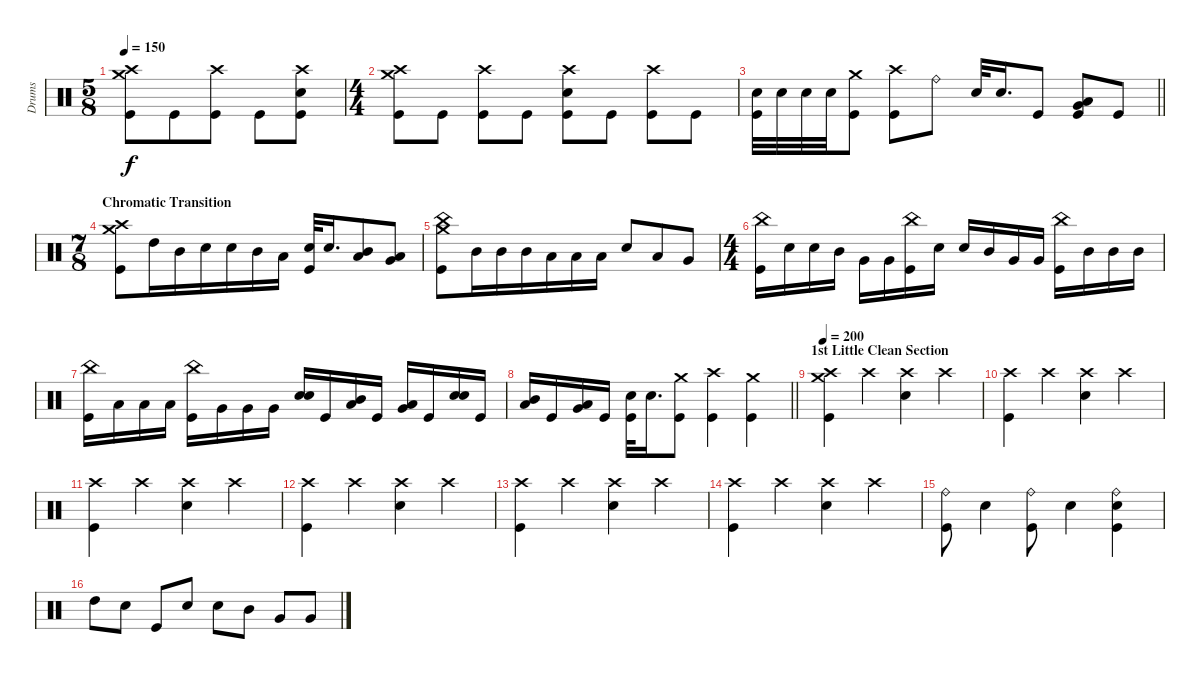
\track ("Drums" "Drums") {instrument percussion}
\staff {score}
\articulation defaults
\ts (5 8)
\tempo 150
\clef neutral
\ks c
("Crash medium (hit)" "Crash high (hit)" "Kick (hit)").8{dy f} "Kick (hit)".8 ("Crash high (hit)" "Kick (hit)").8 "Kick (hit)".8 ("Crash high (hit)" "Electric Snare (hit)" "Kick (hit)").8 |
\ts (4 4)
("Crash medium (hit)" "Crash high (hit)" "Kick (hit)").8 "Kick (hit)".8 ("Crash high (hit)" "Kick (hit)").8 "Kick (hit)".8 ("Crash high (hit)" "Electric Snare (hit)" "Kick (hit)").8 "Kick (hit)".8 ("Crash high (hit)" "Kick (hit)").8 "Kick (hit)".8 |
\barLineRight lightlight
("Electric Snare (hit)" "Kick (hit)").32 "Electric Snare (hit)".32 "Electric Snare (hit)".32 "Electric Snare (hit)".32 ("Crash medium (hit)" "Kick (hit)").8 ("Crash high (hit)" "Kick (hit)").8 "Ride (bell)".8 "Electric Snare (hit)".32 "Electric Snare (hit)".16{d} "Kick (hit)".8 ("Low Tom (hit)" "Very Low Tom (hit)" "Kick (hit)").8 "Kick (hit)".8 |
\ts (7 8)
\section ("" "Chromatic Transition")
("Crash medium (hit)" "Crash high (hit)" "Kick (hit)").8 "High Tom (hit)".16 "Mid Tom (hit)".16 "Electric Snare (hit)".16 "Electric Snare (hit)".16 "Mid Tom (hit)".16 "Low Tom (hit)".16 ("Electric Snare (hit)" "Kick (hit)").32 "Electric Snare (hit)".16{d} ("Mid Tom (hit)" "Low Tom (hit)").8 ("Low Tom (hit)" "Very Low Tom (hit)").8 |
("Crash medium (hit)" "China (hit)" "Kick (hit)").8 "Mid Tom (hit)".16 "Mid Tom (hit)".16 "Mid Tom (hit)".16 "Low Tom (hit)".16 "Low Tom (hit)".16 "Low Tom (hit)".16 "Electric Snare (hit)".8 "Low Tom (hit)".8 "Very Low Tom (hit)".8 |
\ts (4 4)
("China (hit)" "Kick (hit)").16 "Electric Snare (hit)".16 "Electric Snare (hit)".16 "Mid Tom (hit)".16 "Very Low Tom (hit)".16 "Very Low Tom (hit)".16 ("China (hit)" "Kick (hit)").16 "Electric Snare (hit)".16 "Electric Snare (hit)".16 "Mid Tom (hit)".16 "Very Low Tom (hit)".16 "Very Low Tom (hit)".16 ("China (hit)" "Kick (hit)").16 "Mid Tom (hit)".16 "Mid Tom (hit)".16 "Mid Tom (hit)".16 |
("China (hit)" "Kick (hit)").16 "Low Tom (hit)".16 "Low Tom (hit)".16 "Low Tom (hit)".16 ("China (hit)" "Kick (hit)").16 "Very Low Tom (hit)".16 "Very Low Tom (hit)".16 "Very Low Tom (hit)".16 ("Electric Snare (hit)" "Electric Snare (hit)").16 "Kick (hit)".16 ("Mid Tom (hit)" "Low Tom (hit)").16 "Kick (hit)".16 ("Low Tom (hit)" "Very Low Tom (hit)").16 "Kick (hit)".16 ("Electric Snare (hit)" "Electric Snare (hit)").16 "Kick (hit)".16 |
\barLineRight lightlight
("Mid Tom (hit)" "Low Tom (hit)").16 "Kick (hit)".16 ("Low Tom (hit)" "Very Low Tom (hit)").16 "Kick (hit)".16 ("Electric Snare (hit)" "Kick (hit)").32 "Electric Snare (hit)".16{d} ("Crash medium (hit)" "Kick (hit)").8 ("Crash high (hit)" "Kick (hit)").4 ("Crash medium (hit)" "Kick (hit)").4 |
\section ("" "1st Little Clean Section")
\tempo 200
("Crash medium (hit)" "Crash high (hit)" "Kick (hit)").4 "Crash high (hit)".4 ("Crash high (hit)" "Electric Snare (hit)").4 "Crash high (hit)".4 |
("Crash high (hit)" "Kick (hit)").4 "Crash high (hit)".4 ("Crash high (hit)" "Electric Snare (hit)").4 "Crash high (hit)".4 |
("Crash high (hit)" "Kick (hit)").4 "Crash high (hit)".4 ("Crash high (hit)" "Electric Snare (hit)").4 "Crash high (hit)".4 |
("Crash high (hit)" "Kick (hit)").4 "Crash high (hit)".4 ("Crash high (hit)" "Electric Snare (hit)").4 "Crash high (hit)".4 |
("Crash high (hit)" "Kick (hit)").4 "Crash high (hit)".4 ("Crash high (hit)" "Electric Snare (hit)").4 "Crash high (hit)".4 |
("Crash high (hit)" "Kick (hit)").4 "Crash high (hit)".4 ("Crash high (hit)" "Electric Snare (hit)").4 "Crash high (hit)".4 |
("Ride (bell)" "Kick (hit)").8 "Electric Snare (hit)".4 ("Ride (bell)" "Kick (hit)").8 "Electric Snare (hit)".4 ("Ride (bell)" "Electric Snare (hit)" "Kick (hit)").4 |
"High Tom (hit)".8 "Electric Snare (hit)".8 "Kick (hit)".8 "Electric Snare (hit)".8 "Electric Snare (hit)".8 "Mid Tom (hit)".8 "Very Low Tom (hit)".8 "Very Low Tom (hit)".8
